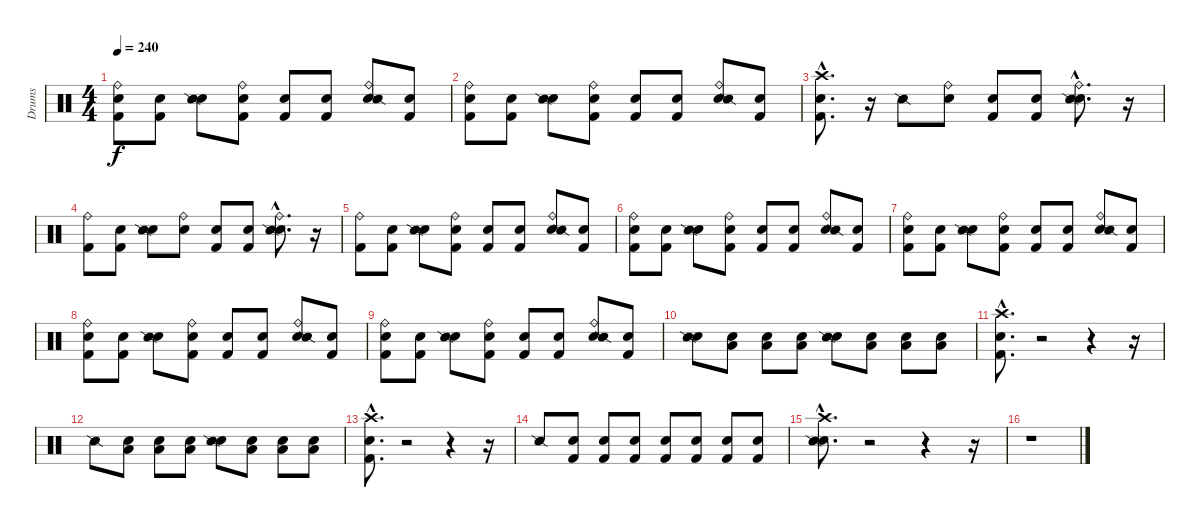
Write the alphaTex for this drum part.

\track ("Drums" "Drums") {instrument percussion}
\staff {score}
\articulation defaults
\ts (4 4)
\tempo 240
\clef neutral
\ks c
("Snare (hit)" "Kick (hit) 2" "Ride (bell)").8{dy f} ("Snare (hit)" "Kick (hit) 2").8 ("Snare (hit)" "Snare (side stick) 2").8 ("Snare (hit)" "Kick (hit) 2" "Ride (bell)").8 ("Snare (hit)" "Kick (hit) 2").8 ("Snare (hit)" "Kick (hit) 2").8 ("Snare (hit)" "Ride (bell)" "Snare (side stick) 2").8 ("Snare (hit)" "Kick (hit) 2").8 |
("Snare (hit)" "Kick (hit) 2" "Ride (bell)").8 ("Snare (hit)" "Kick (hit) 2").8 ("Snare (hit)" "Snare (side stick) 2").8 ("Snare (hit)" "Kick (hit) 2" "Ride (bell)").8 ("Snare (hit)" "Kick (hit) 2").8 ("Snare (hit)" "Kick (hit) 2").8 ("Snare (hit)" "Ride (bell)" "Snare (side stick) 2").8 ("Snare (hit)" "Kick (hit) 2").8 |
("Snare (hit)"{hac} "Kick (hit) 2"{hac} "Crash high (hit)"{hac}).8{d} r.16 "Snare (side stick) 2".8 ("Snare (hit)" "Ride (bell)").8 ("Snare (hit)" "Kick (hit) 2").8 ("Snare (hit)" "Kick (hit) 2").8 ("Snare (hit)"{hac} "Snare (side stick) 2"{hac} "Ride (bell)"{hac}).8{d} r.16 |
("Kick (hit) 2" "Ride (bell)").8 ("Snare (hit)" "Kick (hit) 2").8 ("Snare (hit)" "Snare (side stick) 2").8 ("Snare (hit)" "Ride (bell)").8 ("Snare (hit)" "Kick (hit) 2").8 ("Snare (hit)" "Kick (hit) 2").8 ("Snare (hit)"{hac} "Snare (side stick) 2"{hac} "Ride (bell)"{hac}).8{d} r.16 |
("Kick (hit) 2" "Ride (bell)").8 ("Snare (hit)" "Kick (hit) 2").8 ("Snare (hit)" "Snare (side stick) 2").8 ("Snare (hit)" "Kick (hit) 2" "Ride (bell)").8 ("Snare (hit)" "Kick (hit) 2").8 ("Snare (hit)" "Kick (hit) 2").8 ("Snare (hit)" "Ride (bell)" "Snare (side stick) 2").8 ("Snare (hit)" "Kick (hit) 2").8 |
("Snare (hit)" "Kick (hit) 2" "Ride (bell)").8 ("Snare (hit)" "Kick (hit) 2").8 ("Snare (hit)" "Snare (side stick) 2").8 ("Snare (hit)" "Kick (hit) 2" "Ride (bell)").8 ("Snare (hit)" "Kick (hit) 2").8 ("Snare (hit)" "Kick (hit) 2").8 ("Snare (hit)" "Ride (bell)" "Snare (side stick) 2").8 ("Snare (hit)" "Kick (hit) 2").8 |
("Snare (hit)" "Kick (hit) 2" "Ride (bell)").8 ("Snare (hit)" "Kick (hit) 2").8 ("Snare (hit)" "Snare (side stick) 2").8 ("Snare (hit)" "Kick (hit) 2" "Ride (bell)").8 ("Snare (hit)" "Kick (hit) 2").8 ("Snare (hit)" "Kick (hit) 2").8 ("Snare (hit)" "Ride (bell)" "Snare (side stick) 2").8 ("Snare (hit)" "Kick (hit) 2").8 |
("Snare (hit)" "Kick (hit) 2" "Ride (bell)").8 ("Snare (hit)" "Kick (hit) 2").8 ("Snare (hit)" "Snare (side stick) 2").8 ("Snare (hit)" "Kick (hit) 2" "Ride (bell)").8 ("Snare (hit)" "Kick (hit) 2").8 ("Snare (hit)" "Kick (hit) 2").8 ("Snare (hit)" "Ride (bell)" "Snare (side stick) 2").8 ("Snare (hit)" "Kick (hit) 2").8 |
("Snare (hit)" "Kick (hit) 2" "Ride (bell)").8 ("Snare (hit)" "Kick (hit) 2").8 ("Snare (hit)" "Snare (side stick) 2").8 ("Snare (hit)" "Kick (hit) 2" "Ride (bell)").8 ("Snare (hit)" "Kick (hit) 2").8 ("Snare (hit)" "Kick (hit) 2").8 ("Snare (hit)" "Ride (bell)" "Snare (side stick) 2").8 ("Snare (hit)" "Kick (hit) 2").8 |
("Snare (hit)" "Snare (side stick) 2").8 ("Snare (hit)" "Low Tom (hit)").8 ("Snare (hit)" "Low Tom (hit)").8 ("Snare (hit)" "Low Tom (hit)").8 ("Snare (hit)" "Snare (side stick) 2").8 ("Snare (hit)" "Low Tom (hit)").8 ("Snare (hit)" "Low Tom (hit)").8 ("Snare (hit)" "Low Tom (hit)").8 |
("Snare (hit)"{hac} "Kick (hit) 2"{hac} "Crash high (hit)"{hac}).8{d} r.2 r.4 r.16 |
"Snare (side stick) 2".8 ("Snare (hit)" "Low Tom (hit)").8 ("Snare (hit)" "Low Tom (hit)").8 ("Snare (hit)" "Low Tom (hit)").8 ("Snare (hit)" "Snare (side stick) 2").8 ("Snare (hit)" "Low Tom (hit)").8 ("Snare (hit)" "Low Tom (hit)").8 ("Snare (hit)" "Low Tom (hit)").8 |
("Snare (hit)"{hac} "Kick (hit) 2"{hac} "Crash high (hit)"{hac}).8{d} r.2 r.4 r.16 |
"Snare (side stick) 2".8 ("Snare (hit)" "Kick (hit) 2").8 ("Snare (hit)" "Kick (hit) 2").8 ("Snare (hit)" "Kick (hit) 2").8 ("Snare (hit)" "Kick (hit) 2").8 ("Snare (hit)" "Kick (hit) 2").8 ("Snare (hit)" "Kick (hit) 2").8 ("Snare (hit)" "Kick (hit) 2").8 |
("Snare (hit)"{hac} "Snare (side stick) 2"{hac} "Crash high (hit)"{hac}).8{d} r.2 r.4 r.16 |
r.1
